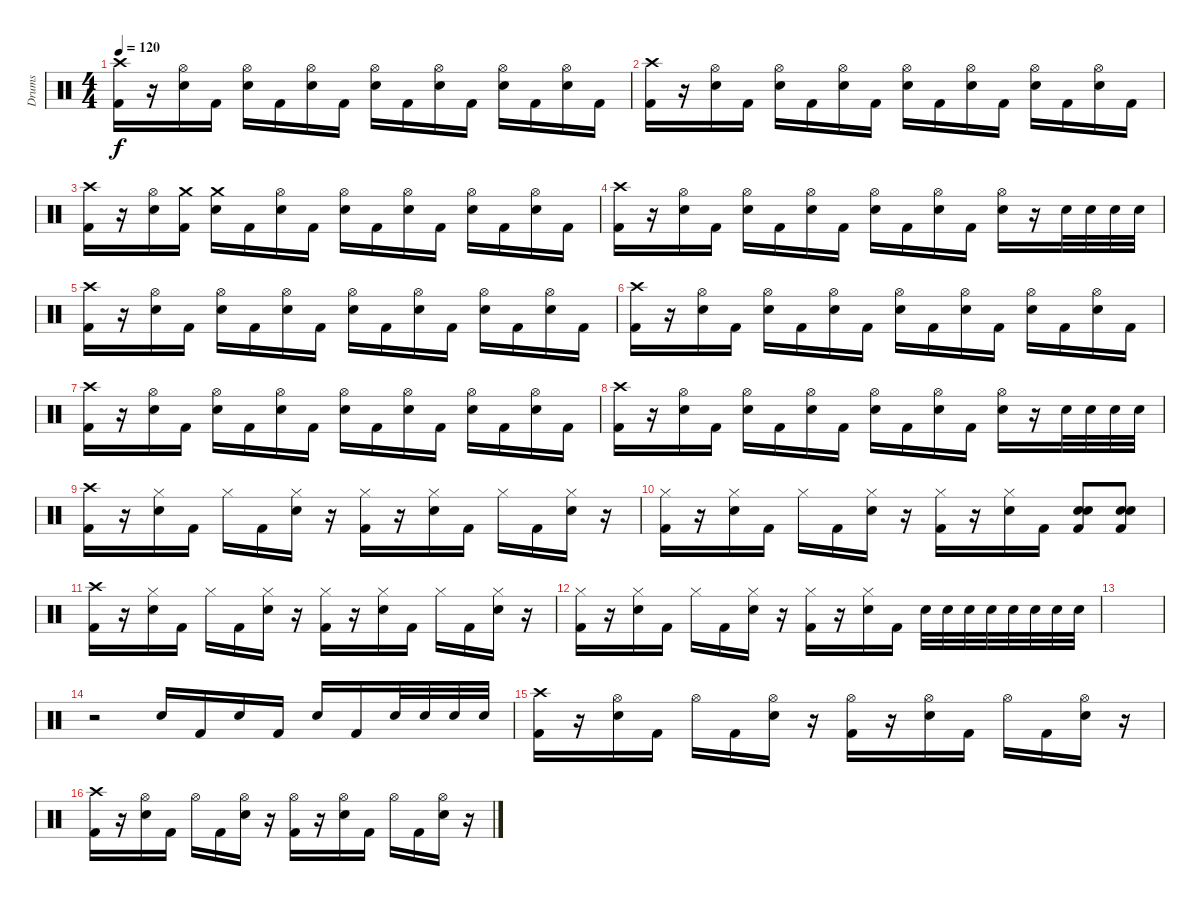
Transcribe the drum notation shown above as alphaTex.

\track ("Drums" "Drums") {instrument percussion}
\staff {score}
\articulation defaults
\ts (4 4)
\tempo 120
\clef neutral
\ks c
("Crash high (hit)" "Kick (hit) 2").16{dy f} r.16 ("Hi-Hat (open)" "Snare (hit) 2").16 "Kick (hit) 2".16 ("Hi-Hat (open)" "Snare (hit) 2").16 "Kick (hit) 2".16 ("Hi-Hat (open)" "Snare (hit) 2").16 "Kick (hit) 2".16 ("Hi-Hat (open)" "Snare (hit) 2").16 "Kick (hit) 2".16 ("Hi-Hat (open)" "Snare (hit) 2").16 "Kick (hit) 2".16 ("Hi-Hat (open)" "Snare (hit) 2").16 "Kick (hit) 2".16 ("Hi-Hat (open)" "Snare (hit) 2").16 "Kick (hit) 2".16 |
("Crash high (hit)" "Kick (hit) 2").16 r.16 ("Hi-Hat (open)" "Snare (hit) 2").16 "Kick (hit) 2".16 ("Hi-Hat (open)" "Snare (hit) 2").16 "Kick (hit) 2".16 ("Hi-Hat (open)" "Snare (hit) 2").16 "Kick (hit) 2".16 ("Hi-Hat (open)" "Snare (hit) 2").16 "Kick (hit) 2".16 ("Hi-Hat (open)" "Snare (hit) 2").16 "Kick (hit) 2".16 ("Hi-Hat (open)" "Snare (hit) 2").16 "Kick (hit) 2".16 ("Hi-Hat (open)" "Snare (hit) 2").16 "Kick (hit) 2".16 |
("Crash high (hit)" "Kick (hit) 2").16 r.16 ("Hi-Hat (open)" "Snare (hit) 2").16 ("Crash medium (hit)" "Kick (hit) 2").16 ("Crash medium (hit)" "Snare (hit) 2").16 "Kick (hit) 2".16 ("Hi-Hat (open)" "Snare (hit) 2").16 "Kick (hit) 2".16 ("Hi-Hat (open)" "Snare (hit) 2").16 "Kick (hit) 2".16 ("Hi-Hat (open)" "Snare (hit) 2").16 "Kick (hit) 2".16 ("Hi-Hat (open)" "Snare (hit) 2").16 "Kick (hit) 2".16 ("Hi-Hat (open)" "Snare (hit) 2").16 "Kick (hit) 2".16 |
("Crash high (hit)" "Kick (hit) 2").16 r.16 ("Hi-Hat (open)" "Snare (hit) 2").16 "Kick (hit) 2".16 ("Hi-Hat (open)" "Snare (hit) 2").16 "Kick (hit) 2".16 ("Hi-Hat (open)" "Snare (hit) 2").16 "Kick (hit) 2".16 ("Hi-Hat (open)" "Snare (hit) 2").16 "Kick (hit) 2".16 ("Hi-Hat (open)" "Snare (hit) 2").16 "Kick (hit) 2".16 ("Hi-Hat (open)" "Snare (hit) 2").16 r.16 "Snare (hit) 2".32 "Snare (hit) 2".32 "Snare (hit) 2".32 "Snare (hit) 2".32 |
("Crash high (hit)" "Kick (hit) 2").16 r.16 ("Hi-Hat (open)" "Snare (hit) 2").16 "Kick (hit) 2".16 ("Hi-Hat (open)" "Snare (hit) 2").16 "Kick (hit) 2".16 ("Hi-Hat (open)" "Snare (hit) 2").16 "Kick (hit) 2".16 ("Hi-Hat (open)" "Snare (hit) 2").16 "Kick (hit) 2".16 ("Hi-Hat (open)" "Snare (hit) 2").16 "Kick (hit) 2".16 ("Hi-Hat (open)" "Snare (hit) 2").16 "Kick (hit) 2".16 ("Hi-Hat (open)" "Snare (hit) 2").16 "Kick (hit) 2".16 |
("Crash high (hit)" "Kick (hit) 2").16 r.16 ("Hi-Hat (open)" "Snare (hit) 2").16 "Kick (hit) 2".16 ("Hi-Hat (open)" "Snare (hit) 2").16 "Kick (hit) 2".16 ("Hi-Hat (open)" "Snare (hit) 2").16 "Kick (hit) 2".16 ("Hi-Hat (open)" "Snare (hit) 2").16 "Kick (hit) 2".16 ("Hi-Hat (open)" "Snare (hit) 2").16 "Kick (hit) 2".16 ("Hi-Hat (open)" "Snare (hit) 2").16 "Kick (hit) 2".16 ("Hi-Hat (open)" "Snare (hit) 2").16 "Kick (hit) 2".16 |
("Crash high (hit)" "Kick (hit) 2").16 r.16 ("Hi-Hat (open)" "Snare (hit) 2").16 "Kick (hit) 2".16 ("Hi-Hat (open)" "Snare (hit) 2").16 "Kick (hit) 2".16 ("Hi-Hat (open)" "Snare (hit) 2").16 "Kick (hit) 2".16 ("Hi-Hat (open)" "Snare (hit) 2").16 "Kick (hit) 2".16 ("Hi-Hat (open)" "Snare (hit) 2").16 "Kick (hit) 2".16 ("Hi-Hat (open)" "Snare (hit) 2").16 "Kick (hit) 2".16 ("Hi-Hat (open)" "Snare (hit) 2").16 "Kick (hit) 2".16 |
("Crash high (hit)" "Kick (hit) 2").16 r.16 ("Hi-Hat (open)" "Snare (hit) 2").16 "Kick (hit) 2".16 ("Hi-Hat (open)" "Snare (hit) 2").16 "Kick (hit) 2".16 ("Hi-Hat (open)" "Snare (hit) 2").16 "Kick (hit) 2".16 ("Hi-Hat (open)" "Snare (hit) 2").16 "Kick (hit) 2".16 ("Hi-Hat (open)" "Snare (hit) 2").16 "Kick (hit) 2".16 ("Hi-Hat (open)" "Snare (hit) 2").16 r.16 "Snare (hit) 2".32 "Snare (hit) 2".32 "Snare (hit) 2".32 "Snare (hit) 2".32 |
("Crash high (hit)" "Kick (hit) 2").16 r.16 ("Hi-Hat (closed)" "Snare (hit) 2").16 "Kick (hit) 2".16 "Hi-Hat (closed)".16 "Kick (hit) 2".16 ("Hi-Hat (closed)" "Snare (hit) 2").16 r.16 ("Hi-Hat (closed)" "Kick (hit) 2").16 r.16 ("Hi-Hat (closed)" "Snare (hit) 2").16 "Kick (hit) 2".16 "Hi-Hat (closed)".16 "Kick (hit) 2".16 ("Hi-Hat (closed)" "Snare (hit) 2").16 r.16 |
("Hi-Hat (closed)" "Kick (hit) 2").16 r.16 ("Hi-Hat (closed)" "Snare (hit) 2").16 "Kick (hit) 2".16 "Hi-Hat (closed)".16 "Kick (hit) 2".16 ("Hi-Hat (closed)" "Snare (hit) 2").16 r.16 ("Hi-Hat (closed)" "Kick (hit) 2").16 r.16 ("Hi-Hat (closed)" "Snare (hit) 2").16 "Kick (hit) 2".16 ("Kick (hit) 2" "Snare (hit) 2" "Snare (hit) 2").8 ("Kick (hit) 2" "Snare (hit) 2" "Snare (hit) 2").8 |
("Crash high (hit)" "Kick (hit) 2").16 r.16 ("Hi-Hat (closed)" "Snare (hit) 2").16 "Kick (hit) 2".16 "Hi-Hat (closed)".16 "Kick (hit) 2".16 ("Hi-Hat (closed)" "Snare (hit) 2").16 r.16 ("Hi-Hat (closed)" "Kick (hit) 2").16 r.16 ("Hi-Hat (closed)" "Snare (hit) 2").16 "Kick (hit) 2".16 "Hi-Hat (closed)".16 "Kick (hit) 2".16 ("Hi-Hat (closed)" "Snare (hit) 2").16 r.16 |
("Hi-Hat (closed)" "Kick (hit) 2").16 r.16 ("Hi-Hat (closed)" "Snare (hit) 2").16 "Kick (hit) 2".16 "Hi-Hat (closed)".16 "Kick (hit) 2".16 ("Hi-Hat (closed)" "Snare (hit) 2").16 r.16 ("Hi-Hat (closed)" "Kick (hit) 2").16 r.16 ("Hi-Hat (closed)" "Snare (hit) 2").16 "Kick (hit) 2".16 "Snare (hit) 2".32 "Snare (hit) 2".32 "Snare (hit) 2".32 "Snare (hit) 2".32 "Snare (hit) 2".32 "Snare (hit) 2".32 "Snare (hit) 2".32 "Snare (hit) 2".32 |
|
r.2 "Snare (hit) 2".16 "Kick (hit) 2".16 "Snare (hit) 2".16 "Kick (hit) 2".16 "Snare (hit) 2".16 "Kick (hit) 2".16 "Snare (hit) 2".32 "Snare (hit) 2".32 "Snare (hit) 2".32 "Snare (hit) 2".32 |
("Crash high (hit)" "Kick (hit) 2").16 r.16 ("Hi-Hat (open)" "Snare (hit) 2").16 "Kick (hit) 2".16 "Hi-Hat (open)".16 "Kick (hit) 2".16 ("Hi-Hat (open)" "Snare (hit) 2").16 r.16 ("Hi-Hat (open)" "Kick (hit) 2").16 r.16 ("Hi-Hat (open)" "Snare (hit) 2").16 "Kick (hit) 2".16 "Hi-Hat (open)".16 "Kick (hit) 2".16 ("Hi-Hat (open)" "Snare (hit) 2").16 r.16 |
("Crash high (hit)" "Kick (hit) 2").16 r.16 ("Hi-Hat (open)" "Snare (hit) 2").16 "Kick (hit) 2".16 "Hi-Hat (open)".16 "Kick (hit) 2".16 ("Hi-Hat (open)" "Snare (hit) 2").16 r.16 ("Hi-Hat (open)" "Kick (hit) 2").16 r.16 ("Hi-Hat (open)" "Snare (hit) 2").16 "Kick (hit) 2".16 "Hi-Hat (open)".16 "Kick (hit) 2".16 ("Hi-Hat (open)" "Snare (hit) 2").16 r.16
